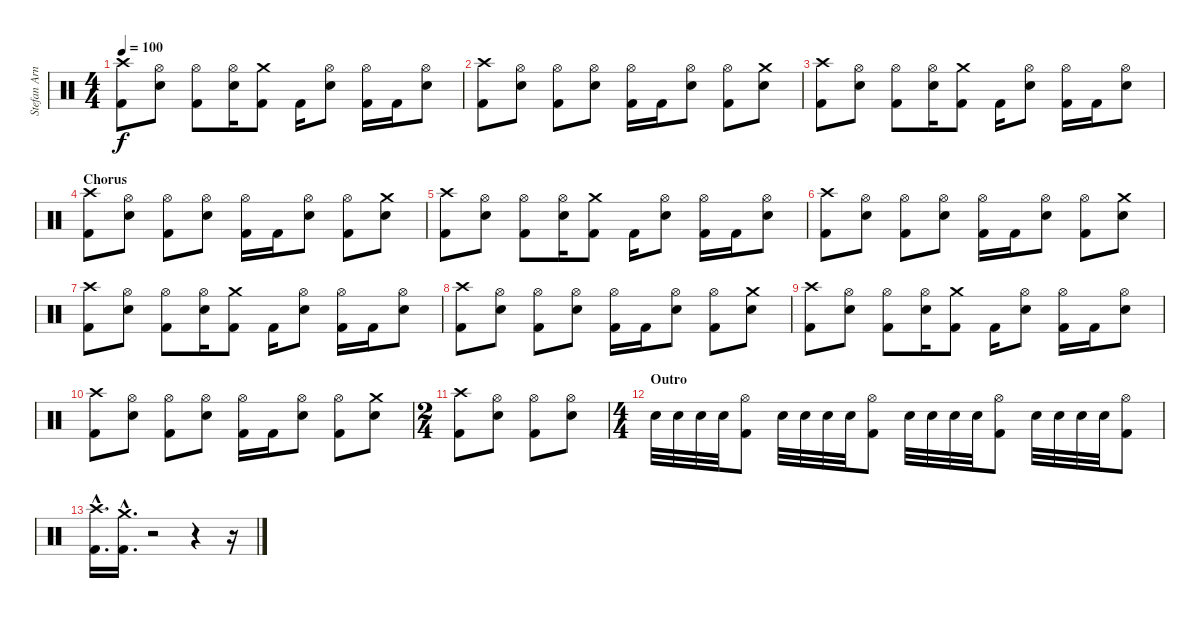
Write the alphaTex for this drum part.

\track ("Stefan Arnold" "Stefan Arn") {instrument percussion}
\staff {score}
\articulation defaults
\ts (4 4)
\tempo 100
\clef neutral
\ks c
("Crash high (hit)" "Kick (hit) 2").8{dy f} ("Hi-Hat (open)" "Electric Snare (hit)").8 ("Hi-Hat (open)" "Kick (hit) 2").8 ("Hi-Hat (open)" "Electric Snare (hit)").16 ("Crash medium (hit)" "Kick (hit) 2").8 "Kick (hit) 2".16 ("Hi-Hat (open)" "Electric Snare (hit)").8 ("Hi-Hat (open)" "Kick (hit) 2").16 "Kick (hit) 2".16 ("Hi-Hat (open)" "Electric Snare (hit)").8 |
("Crash high (hit)" "Kick (hit) 2").8 ("Hi-Hat (open)" "Electric Snare (hit)").8 ("Hi-Hat (open)" "Kick (hit) 2").8 ("Hi-Hat (open)" "Electric Snare (hit)").8 ("Hi-Hat (open)" "Kick (hit) 2").16 "Kick (hit) 2".16 ("Hi-Hat (open)" "Electric Snare (hit)").8 ("Hi-Hat (open)" "Kick (hit) 2").8 ("Crash medium (hit)" "Electric Snare (hit)").8 |
("Crash high (hit)" "Kick (hit) 2").8 ("Hi-Hat (open)" "Electric Snare (hit)").8 ("Hi-Hat (open)" "Kick (hit) 2").8 ("Hi-Hat (open)" "Electric Snare (hit)").16 ("Crash medium (hit)" "Kick (hit) 2").8 "Kick (hit) 2".16 ("Hi-Hat (open)" "Electric Snare (hit)").8 ("Hi-Hat (open)" "Kick (hit) 2").16 "Kick (hit) 2".16 ("Hi-Hat (open)" "Electric Snare (hit)").8 |
\section ("" "Chorus")
("Crash high (hit)" "Kick (hit) 2").8 ("Hi-Hat (open)" "Electric Snare (hit)").8 ("Hi-Hat (open)" "Kick (hit) 2").8 ("Hi-Hat (open)" "Electric Snare (hit)").8 ("Hi-Hat (open)" "Kick (hit) 2").16 "Kick (hit) 2".16 ("Hi-Hat (open)" "Electric Snare (hit)").8 ("Hi-Hat (open)" "Kick (hit) 2").8 ("Crash medium (hit)" "Electric Snare (hit)").8 |
("Crash high (hit)" "Kick (hit) 2").8 ("Hi-Hat (open)" "Electric Snare (hit)").8 ("Hi-Hat (open)" "Kick (hit) 2").8 ("Hi-Hat (open)" "Electric Snare (hit)").16 ("Crash medium (hit)" "Kick (hit) 2").8 "Kick (hit) 2".16 ("Hi-Hat (open)" "Electric Snare (hit)").8 ("Hi-Hat (open)" "Kick (hit) 2").16 "Kick (hit) 2".16 ("Hi-Hat (open)" "Electric Snare (hit)").8 |
("Crash high (hit)" "Kick (hit) 2").8 ("Hi-Hat (open)" "Electric Snare (hit)").8 ("Hi-Hat (open)" "Kick (hit) 2").8 ("Hi-Hat (open)" "Electric Snare (hit)").8 ("Hi-Hat (open)" "Kick (hit) 2").16 "Kick (hit) 2".16 ("Hi-Hat (open)" "Electric Snare (hit)").8 ("Hi-Hat (open)" "Kick (hit) 2").8 ("Crash medium (hit)" "Electric Snare (hit)").8 |
("Crash high (hit)" "Kick (hit) 2").8 ("Hi-Hat (open)" "Electric Snare (hit)").8 ("Hi-Hat (open)" "Kick (hit) 2").8 ("Hi-Hat (open)" "Electric Snare (hit)").16 ("Crash medium (hit)" "Kick (hit) 2").8 "Kick (hit) 2".16 ("Hi-Hat (open)" "Electric Snare (hit)").8 ("Hi-Hat (open)" "Kick (hit) 2").16 "Kick (hit) 2".16 ("Hi-Hat (open)" "Electric Snare (hit)").8 |
("Crash high (hit)" "Kick (hit) 2").8 ("Hi-Hat (open)" "Electric Snare (hit)").8 ("Hi-Hat (open)" "Kick (hit) 2").8 ("Hi-Hat (open)" "Electric Snare (hit)").8 ("Hi-Hat (open)" "Kick (hit) 2").16 "Kick (hit) 2".16 ("Hi-Hat (open)" "Electric Snare (hit)").8 ("Hi-Hat (open)" "Kick (hit) 2").8 ("Crash medium (hit)" "Electric Snare (hit)").8 |
("Crash high (hit)" "Kick (hit) 2").8 ("Hi-Hat (open)" "Electric Snare (hit)").8 ("Hi-Hat (open)" "Kick (hit) 2").8 ("Hi-Hat (open)" "Electric Snare (hit)").16 ("Crash medium (hit)" "Kick (hit) 2").8 "Kick (hit) 2".16 ("Hi-Hat (open)" "Electric Snare (hit)").8 ("Hi-Hat (open)" "Kick (hit) 2").16 "Kick (hit) 2".16 ("Hi-Hat (open)" "Electric Snare (hit)").8 |
("Crash high (hit)" "Kick (hit) 2").8 ("Hi-Hat (open)" "Electric Snare (hit)").8 ("Hi-Hat (open)" "Kick (hit) 2").8 ("Hi-Hat (open)" "Electric Snare (hit)").8 ("Hi-Hat (open)" "Kick (hit) 2").16 "Kick (hit) 2".16 ("Hi-Hat (open)" "Electric Snare (hit)").8 ("Hi-Hat (open)" "Kick (hit) 2").8 ("Crash medium (hit)" "Electric Snare (hit)").8 |
\ts (2 4)
("Crash high (hit)" "Kick (hit) 2").8 ("Hi-Hat (open)" "Electric Snare (hit)").8 ("Hi-Hat (open)" "Kick (hit) 2").8 ("Hi-Hat (open)" "Electric Snare (hit)").8 |
\ts (4 4)
\section ("" "Outro")
"Electric Snare (hit)".32 "Electric Snare (hit)".32 "Electric Snare (hit)".32 "Electric Snare (hit)".32 ("Hi-Hat (open)" "Kick (hit) 2").8 "Electric Snare (hit)".32 "Electric Snare (hit)".32 "Electric Snare (hit)".32 "Electric Snare (hit)".32 ("Hi-Hat (open)" "Kick (hit) 2").8 "Electric Snare (hit)".32 "Electric Snare (hit)".32 "Electric Snare (hit)".32 "Electric Snare (hit)".32 ("Hi-Hat (open)" "Kick (hit) 2").8 "Electric Snare (hit)".32 "Electric Snare (hit)".32 "Electric Snare (hit)".32 "Electric Snare (hit)".32 ("Hi-Hat (open)" "Kick (hit) 2").8 |
("Crash high (hit)"{hac} "Kick (hit) 2"{hac}).16{d} ("Crash medium (hit)"{hac} "Kick (hit) 2"{hac}).16{d} r.2 r.4 r.16
